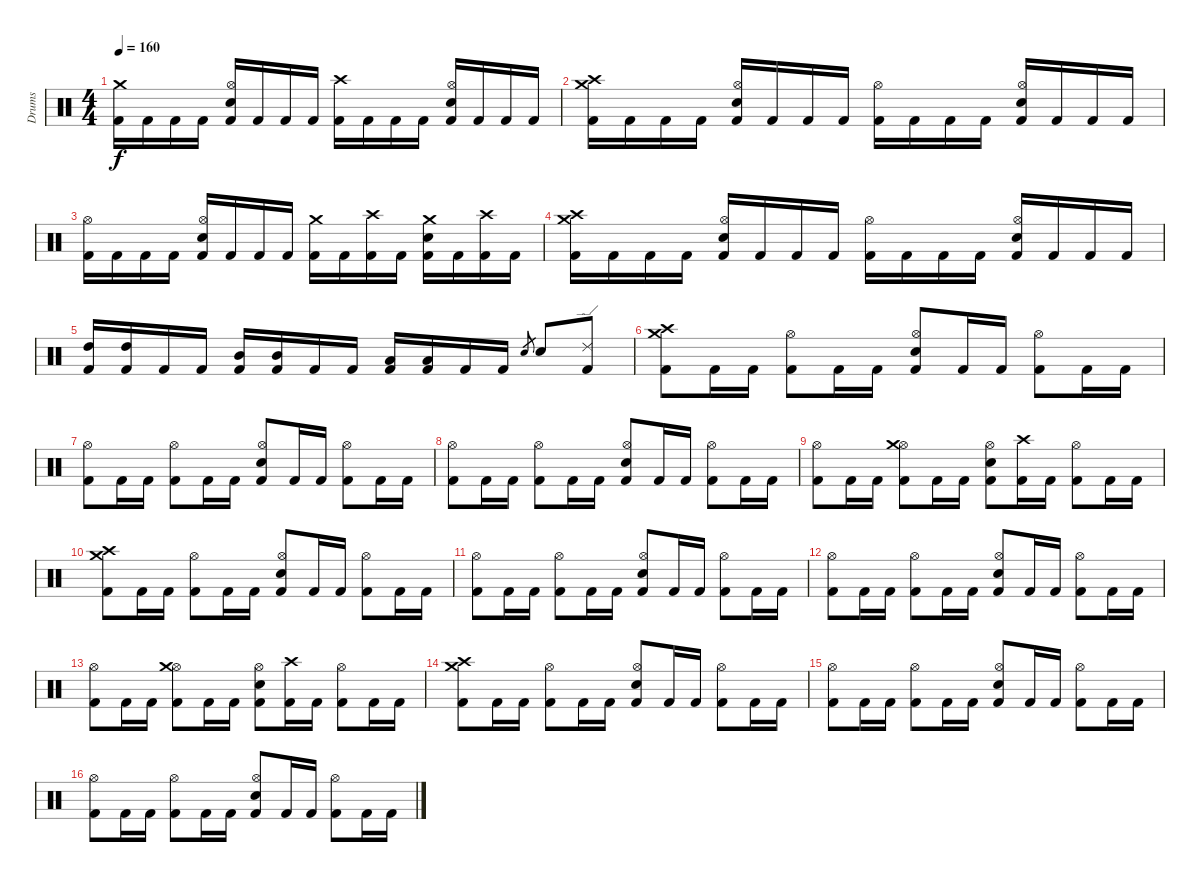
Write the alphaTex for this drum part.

\track ("Drums" "Drums") {instrument percussion}
\staff {score}
\articulation defaults
\ts (4 4)
\tempo 160
\clef neutral
\ks c
("Crash medium (hit)" "Kick (hit) 2").16{dy f} "Kick (hit) 2".16 "Kick (hit) 2".16 "Kick (hit) 2".16 ("Hi-Hat (open)" "Kick (hit) 2" "Snare (hit) 2").16 "Kick (hit) 2".16 "Kick (hit) 2".16 "Kick (hit) 2".16 ("Crash high (hit)" "Kick (hit) 2").16 "Kick (hit) 2".16 "Kick (hit) 2".16 "Kick (hit) 2".16 ("Hi-Hat (open)" "Kick (hit) 2" "Snare (hit) 2").16 "Kick (hit) 2".16 "Kick (hit) 2".16 "Kick (hit) 2".16 |
("Crash medium (hit)" "Crash high (hit)" "Kick (hit) 2").16 "Kick (hit) 2".16 "Kick (hit) 2".16 "Kick (hit) 2".16 ("Hi-Hat (open)" "Kick (hit) 2" "Snare (hit) 2").16 "Kick (hit) 2".16 "Kick (hit) 2".16 "Kick (hit) 2".16 ("Hi-Hat (open)" "Kick (hit) 2").16 "Kick (hit) 2".16 "Kick (hit) 2".16 "Kick (hit) 2".16 ("Hi-Hat (open)" "Kick (hit) 2" "Snare (hit) 2").16 "Kick (hit) 2".16 "Kick (hit) 2".16 "Kick (hit) 2".16 |
("Hi-Hat (open)" "Kick (hit) 2").16 "Kick (hit) 2".16 "Kick (hit) 2".16 "Kick (hit) 2".16 ("Hi-Hat (open)" "Kick (hit) 2" "Snare (hit) 2").16 "Kick (hit) 2".16 "Kick (hit) 2".16 "Kick (hit) 2".16 ("Crash medium (hit)" "Kick (hit) 2").16 "Kick (hit) 2".16 ("Crash high (hit)" "Kick (hit) 2").16 "Kick (hit) 2".16 ("Crash medium (hit)" "Kick (hit) 2" "Snare (hit) 2").16 "Kick (hit) 2".16 ("Crash high (hit)" "Kick (hit) 2").16 "Kick (hit) 2".16 |
("Crash medium (hit)" "Crash high (hit)" "Kick (hit) 2").16 "Kick (hit) 2".16 "Kick (hit) 2".16 "Kick (hit) 2".16 ("Hi-Hat (open)" "Kick (hit) 2" "Snare (hit) 2").16 "Kick (hit) 2".16 "Kick (hit) 2".16 "Kick (hit) 2".16 ("Hi-Hat (open)" "Kick (hit) 2").16 "Kick (hit) 2".16 "Kick (hit) 2".16 "Kick (hit) 2".16 ("Hi-Hat (open)" "Kick (hit) 2" "Snare (hit) 2").16 "Kick (hit) 2".16 "Kick (hit) 2".16 "Kick (hit) 2".16 |
("Kick (hit) 2" "High Tom (hit)").16 ("Kick (hit) 2" "High Tom (hit)").16 "Kick (hit) 2".16 "Kick (hit) 2".16 ("Kick (hit) 2" "Mid Tom (hit)").16 ("Kick (hit) 2" "Mid Tom (hit)").16 "Kick (hit) 2".16 "Kick (hit) 2".16 ("Kick (hit) 2" "Low Tom (hit)").16 ("Kick (hit) 2" "Low Tom (hit)").16 "Kick (hit) 2".16 "Kick (hit) 2".16 "Snare (hit) 2".8{gr} "Snare (hit) 2".8 ("Ride (edge) 2" "Kick (hit) 2").8 |
("Crash medium (hit)" "Crash high (hit)" "Kick (hit) 2").8 "Kick (hit) 2".16 "Kick (hit) 2".16 ("Hi-Hat (open)" "Kick (hit) 2").8 "Kick (hit) 2".16 "Kick (hit) 2".16 ("Hi-Hat (open)" "Kick (hit) 2" "Snare (hit) 2").8 "Kick (hit) 2".16 "Kick (hit) 2".16 ("Hi-Hat (open)" "Kick (hit) 2").8 "Kick (hit) 2".16 "Kick (hit) 2".16 |
("Hi-Hat (open)" "Kick (hit) 2").8 "Kick (hit) 2".16 "Kick (hit) 2".16 ("Hi-Hat (open)" "Kick (hit) 2").8 "Kick (hit) 2".16 "Kick (hit) 2".16 ("Hi-Hat (open)" "Kick (hit) 2" "Snare (hit) 2").8 "Kick (hit) 2".16 "Kick (hit) 2".16 ("Hi-Hat (open)" "Kick (hit) 2").8 "Kick (hit) 2".16 "Kick (hit) 2".16 |
("Hi-Hat (open)" "Kick (hit) 2").8 "Kick (hit) 2".16 "Kick (hit) 2".16 ("Hi-Hat (open)" "Kick (hit) 2").8 "Kick (hit) 2".16 "Kick (hit) 2".16 ("Hi-Hat (open)" "Kick (hit) 2" "Snare (hit) 2").8 "Kick (hit) 2".16 "Kick (hit) 2".16 ("Hi-Hat (open)" "Kick (hit) 2").8 "Kick (hit) 2".16 "Kick (hit) 2".16 |
("Hi-Hat (open)" "Kick (hit) 2").8 "Kick (hit) 2".16 "Kick (hit) 2".16 ("Hi-Hat (open)" "Crash medium (hit)" "Kick (hit) 2").8 "Kick (hit) 2".16 "Kick (hit) 2".16 ("Hi-Hat (open)" "Kick (hit) 2" "Snare (hit) 2").8 ("Crash high (hit)" "Kick (hit) 2").16 "Kick (hit) 2".16 ("Hi-Hat (open)" "Kick (hit) 2").8 "Kick (hit) 2".16 "Kick (hit) 2".16 |
("Crash medium (hit)" "Crash high (hit)" "Kick (hit) 2").8 "Kick (hit) 2".16 "Kick (hit) 2".16 ("Hi-Hat (open)" "Kick (hit) 2").8 "Kick (hit) 2".16 "Kick (hit) 2".16 ("Hi-Hat (open)" "Kick (hit) 2" "Snare (hit) 2").8 "Kick (hit) 2".16 "Kick (hit) 2".16 ("Hi-Hat (open)" "Kick (hit) 2").8 "Kick (hit) 2".16 "Kick (hit) 2".16 |
("Hi-Hat (open)" "Kick (hit) 2").8 "Kick (hit) 2".16 "Kick (hit) 2".16 ("Hi-Hat (open)" "Kick (hit) 2").8 "Kick (hit) 2".16 "Kick (hit) 2".16 ("Hi-Hat (open)" "Kick (hit) 2" "Snare (hit) 2").8 "Kick (hit) 2".16 "Kick (hit) 2".16 ("Hi-Hat (open)" "Kick (hit) 2").8 "Kick (hit) 2".16 "Kick (hit) 2".16 |
("Hi-Hat (open)" "Kick (hit) 2").8 "Kick (hit) 2".16 "Kick (hit) 2".16 ("Hi-Hat (open)" "Kick (hit) 2").8 "Kick (hit) 2".16 "Kick (hit) 2".16 ("Hi-Hat (open)" "Kick (hit) 2" "Snare (hit) 2").8 "Kick (hit) 2".16 "Kick (hit) 2".16 ("Hi-Hat (open)" "Kick (hit) 2").8 "Kick (hit) 2".16 "Kick (hit) 2".16 |
("Hi-Hat (open)" "Kick (hit) 2").8 "Kick (hit) 2".16 "Kick (hit) 2".16 ("Hi-Hat (open)" "Crash medium (hit)" "Kick (hit) 2").8 "Kick (hit) 2".16 "Kick (hit) 2".16 ("Hi-Hat (open)" "Kick (hit) 2" "Snare (hit) 2").8 ("Crash high (hit)" "Kick (hit) 2").16 "Kick (hit) 2".16 ("Hi-Hat (open)" "Kick (hit) 2").8 "Kick (hit) 2".16 "Kick (hit) 2".16 |
("Crash medium (hit)" "Crash high (hit)" "Kick (hit) 2").8 "Kick (hit) 2".16 "Kick (hit) 2".16 ("Hi-Hat (open)" "Kick (hit) 2").8 "Kick (hit) 2".16 "Kick (hit) 2".16 ("Hi-Hat (open)" "Kick (hit) 2" "Snare (hit) 2").8 "Kick (hit) 2".16 "Kick (hit) 2".16 ("Hi-Hat (open)" "Kick (hit) 2").8 "Kick (hit) 2".16 "Kick (hit) 2".16 |
("Hi-Hat (open)" "Kick (hit) 2").8 "Kick (hit) 2".16 "Kick (hit) 2".16 ("Hi-Hat (open)" "Kick (hit) 2").8 "Kick (hit) 2".16 "Kick (hit) 2".16 ("Hi-Hat (open)" "Kick (hit) 2" "Snare (hit) 2").8 "Kick (hit) 2".16 "Kick (hit) 2".16 ("Hi-Hat (open)" "Kick (hit) 2").8 "Kick (hit) 2".16 "Kick (hit) 2".16 |
("Hi-Hat (open)" "Kick (hit) 2").8 "Kick (hit) 2".16 "Kick (hit) 2".16 ("Hi-Hat (open)" "Kick (hit) 2").8 "Kick (hit) 2".16 "Kick (hit) 2".16 ("Hi-Hat (open)" "Kick (hit) 2" "Snare (hit) 2").8 "Kick (hit) 2".16 "Kick (hit) 2".16 ("Hi-Hat (open)" "Kick (hit) 2").8 "Kick (hit) 2".16 "Kick (hit) 2".16
